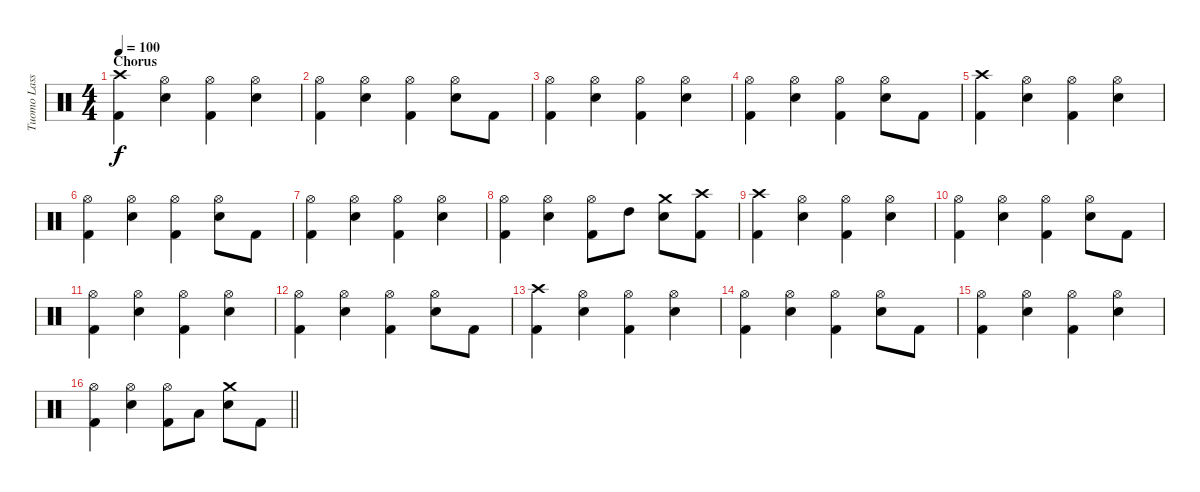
\track ("Tuomo Lassila" "Tuomo Lass") {instrument percussion}
\staff {score}
\articulation defaults
\ts (4 4)
\section ("" "Chorus")
\tempo 100
\clef neutral
\ks c
("Crash high (hit)" "Kick (hit) 2").4{dy f} ("Hi-Hat (open)" "Electric Snare (hit)").4 ("Hi-Hat (open)" "Kick (hit) 2").4 ("Hi-Hat (open)" "Electric Snare (hit)").4 |
("Hi-Hat (open)" "Kick (hit) 2").4 ("Hi-Hat (open)" "Electric Snare (hit)").4 ("Hi-Hat (open)" "Kick (hit) 2").4 ("Hi-Hat (open)" "Electric Snare (hit)").8 "Kick (hit) 2".8 |
("Hi-Hat (open)" "Kick (hit) 2").4 ("Hi-Hat (open)" "Electric Snare (hit)").4 ("Hi-Hat (open)" "Kick (hit) 2").4 ("Hi-Hat (open)" "Electric Snare (hit)").4 |
("Hi-Hat (open)" "Kick (hit) 2").4 ("Hi-Hat (open)" "Electric Snare (hit)").4 ("Hi-Hat (open)" "Kick (hit) 2").4 ("Hi-Hat (open)" "Electric Snare (hit)").8 "Kick (hit) 2".8 |
("Crash high (hit)" "Kick (hit) 2").4 ("Hi-Hat (open)" "Electric Snare (hit)").4 ("Hi-Hat (open)" "Kick (hit) 2").4 ("Hi-Hat (open)" "Electric Snare (hit)").4 |
("Hi-Hat (open)" "Kick (hit) 2").4 ("Hi-Hat (open)" "Electric Snare (hit)").4 ("Hi-Hat (open)" "Kick (hit) 2").4 ("Hi-Hat (open)" "Electric Snare (hit)").8 "Kick (hit) 2".8 |
("Hi-Hat (open)" "Kick (hit) 2").4 ("Hi-Hat (open)" "Electric Snare (hit)").4 ("Hi-Hat (open)" "Kick (hit) 2").4 ("Hi-Hat (open)" "Electric Snare (hit)").4 |
("Hi-Hat (open)" "Kick (hit) 2").4 ("Hi-Hat (open)" "Electric Snare (hit)").4 ("Hi-Hat (open)" "Kick (hit) 2").8 "High Tom (hit)".8 ("Crash medium (hit)" "Electric Snare (hit)").8 ("Crash high (hit)" "Kick (hit) 2").8 |
("Crash high (hit)" "Kick (hit) 2").4 ("Hi-Hat (open)" "Electric Snare (hit)").4 ("Hi-Hat (open)" "Kick (hit) 2").4 ("Hi-Hat (open)" "Electric Snare (hit)").4 |
("Hi-Hat (open)" "Kick (hit) 2").4 ("Hi-Hat (open)" "Electric Snare (hit)").4 ("Hi-Hat (open)" "Kick (hit) 2").4 ("Hi-Hat (open)" "Electric Snare (hit)").8 "Kick (hit) 2".8 |
("Hi-Hat (open)" "Kick (hit) 2").4 ("Hi-Hat (open)" "Electric Snare (hit)").4 ("Hi-Hat (open)" "Kick (hit) 2").4 ("Hi-Hat (open)" "Electric Snare (hit)").4 |
("Hi-Hat (open)" "Kick (hit) 2").4 ("Hi-Hat (open)" "Electric Snare (hit)").4 ("Hi-Hat (open)" "Kick (hit) 2").4 ("Hi-Hat (open)" "Electric Snare (hit)").8 "Kick (hit) 2".8 |
("Crash high (hit)" "Kick (hit) 2").4 ("Hi-Hat (open)" "Electric Snare (hit)").4 ("Hi-Hat (open)" "Kick (hit) 2").4 ("Hi-Hat (open)" "Electric Snare (hit)").4 |
("Hi-Hat (open)" "Kick (hit) 2").4 ("Hi-Hat (open)" "Electric Snare (hit)").4 ("Hi-Hat (open)" "Kick (hit) 2").4 ("Hi-Hat (open)" "Electric Snare (hit)").8 "Kick (hit) 2".8 |
("Hi-Hat (open)" "Kick (hit) 2").4 ("Hi-Hat (open)" "Electric Snare (hit)").4 ("Hi-Hat (open)" "Kick (hit) 2").4 ("Hi-Hat (open)" "Electric Snare (hit)").4 |
\barLineRight lightlight
("Hi-Hat (open)" "Kick (hit) 2").4 ("Hi-Hat (open)" "Electric Snare (hit)").4 ("Hi-Hat (open)" "Kick (hit) 2").8 "Low Tom (hit)".8 ("Crash medium (hit)" "Electric Snare (hit)").8 "Kick (hit) 2".8
